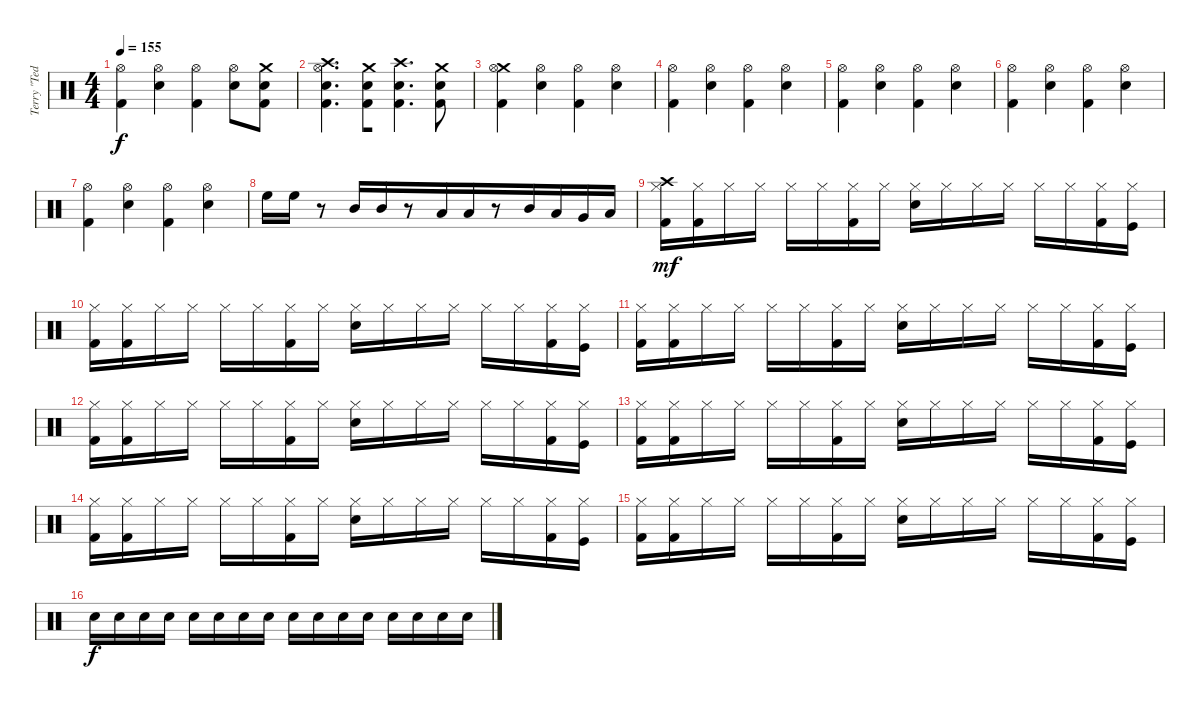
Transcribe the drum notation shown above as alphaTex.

\track ("Terry \"Ted\" Bozzio" "Terry \"Ted") {instrument percussion}
\staff {score}
\articulation defaults
\ts (4 4)
\tempo 155
\clef neutral
\ks c
("Hi-Hat (open)" "Kick (hit) 2").4{dy f} ("Hi-Hat (open)" "Electric Snare (hit)").4 ("Hi-Hat (open)" "Kick (hit) 2").4 ("Hi-Hat (open)" "Electric Snare (hit)").8 ("Crash medium (hit)" "Electric Snare (hit)" "Kick (hit) 2").8 |
("Crash high (hit)" "Hi-Hat (open)" "Electric Snare (hit)" "Kick (hit) 2").4{d} ("Crash medium (hit)" "Electric Snare (hit)" "Kick (hit) 2").8{beam merge} ("Crash high (hit)" "Electric Snare (hit)" "Kick (hit) 2").4{d} ("Crash medium (hit)" "Electric Snare (hit)" "Kick (hit) 2").8 |
("Crash medium (hit)" "Hi-Hat (open)" "Kick (hit) 2").4 ("Hi-Hat (open)" "Electric Snare (hit)").4 ("Hi-Hat (open)" "Kick (hit) 2").4 ("Hi-Hat (open)" "Electric Snare (hit)").4 |
("Hi-Hat (open)" "Kick (hit) 2").4 ("Hi-Hat (open)" "Electric Snare (hit)").4 ("Hi-Hat (open)" "Kick (hit) 2").4 ("Hi-Hat (open)" "Electric Snare (hit)").4 |
("Hi-Hat (open)" "Kick (hit) 2").4 ("Hi-Hat (open)" "Electric Snare (hit)").4 ("Hi-Hat (open)" "Kick (hit) 2").4 ("Hi-Hat (open)" "Electric Snare (hit)").4 |
("Hi-Hat (open)" "Kick (hit) 2").4 ("Hi-Hat (open)" "Electric Snare (hit)").4 ("Hi-Hat (open)" "Kick (hit) 2").4 ("Hi-Hat (open)" "Electric Snare (hit)").4 |
("Hi-Hat (open)" "Kick (hit) 2").4 ("Hi-Hat (open)" "Electric Snare (hit)").4 ("Hi-Hat (open)" "Kick (hit) 2").4 ("Hi-Hat (open)" "Electric Snare (hit)").4 |
"High Floor Tom (hit)".16 "High Floor Tom (hit)".16 r.8 "Mid Tom (hit)".16{beam merge} "Mid Tom (hit)".16{beam merge} r.8 "Low Tom (hit)".16{beam merge} "Low Tom (hit)".16{beam merge} r.8 "Mid Tom (hit)".16{beam merge} "Low Tom (hit)".16{beam merge} "Very Low Tom (hit)".16{beam merge} "Low Floor Tom (hit)".16 |
("Crash high (hit)" "Hi-Hat (closed)" "Kick (hit) 2").16{dy mf beam merge} ("Hi-Hat (closed)" "Kick (hit) 2").16{beam merge} "Hi-Hat (closed)".16 "Hi-Hat (closed)".16 "Hi-Hat (closed)".16{beam merge} "Hi-Hat (closed)".16 ("Hi-Hat (closed)" "Kick (hit) 2").16 "Hi-Hat (closed)".16 ("Hi-Hat (closed)" "Electric Snare (hit)").16 "Hi-Hat (closed)".16 "Hi-Hat (closed)".16 "Hi-Hat (closed)".16 "Hi-Hat (closed)".16 "Hi-Hat (closed)".16 ("Hi-Hat (closed)" "Kick (hit) 2").16{beam merge} ("Hi-Hat (closed)" "Kick (hit)").16 |
("Hi-Hat (closed)" "Kick (hit) 2").16{beam merge} ("Hi-Hat (closed)" "Kick (hit) 2").16{beam merge} "Hi-Hat (closed)".16 "Hi-Hat (closed)".16 "Hi-Hat (closed)".16{beam merge} "Hi-Hat (closed)".16 ("Hi-Hat (closed)" "Kick (hit) 2").16 "Hi-Hat (closed)".16 ("Hi-Hat (closed)" "Electric Snare (hit)").16 "Hi-Hat (closed)".16 "Hi-Hat (closed)".16 "Hi-Hat (closed)".16 "Hi-Hat (closed)".16 "Hi-Hat (closed)".16 ("Hi-Hat (closed)" "Kick (hit) 2").16{beam merge} ("Hi-Hat (closed)" "Kick (hit)").16 |
("Hi-Hat (closed)" "Kick (hit) 2").16{beam merge} ("Hi-Hat (closed)" "Kick (hit) 2").16{beam merge} "Hi-Hat (closed)".16 "Hi-Hat (closed)".16 "Hi-Hat (closed)".16{beam merge} "Hi-Hat (closed)".16 ("Hi-Hat (closed)" "Kick (hit) 2").16 "Hi-Hat (closed)".16 ("Hi-Hat (closed)" "Electric Snare (hit)").16 "Hi-Hat (closed)".16 "Hi-Hat (closed)".16 "Hi-Hat (closed)".16 "Hi-Hat (closed)".16 "Hi-Hat (closed)".16 ("Hi-Hat (closed)" "Kick (hit) 2").16{beam merge} ("Hi-Hat (closed)" "Kick (hit)").16 |
("Hi-Hat (closed)" "Kick (hit) 2").16{beam merge} ("Hi-Hat (closed)" "Kick (hit) 2").16{beam merge} "Hi-Hat (closed)".16 "Hi-Hat (closed)".16 "Hi-Hat (closed)".16{beam merge} "Hi-Hat (closed)".16 ("Hi-Hat (closed)" "Kick (hit) 2").16 "Hi-Hat (closed)".16 ("Hi-Hat (closed)" "Electric Snare (hit)").16 "Hi-Hat (closed)".16 "Hi-Hat (closed)".16 "Hi-Hat (closed)".16 "Hi-Hat (closed)".16 "Hi-Hat (closed)".16 ("Hi-Hat (closed)" "Kick (hit) 2").16{beam merge} ("Hi-Hat (closed)" "Kick (hit)").16 |
("Hi-Hat (closed)" "Kick (hit) 2").16{beam merge} ("Hi-Hat (closed)" "Kick (hit) 2").16{beam merge} "Hi-Hat (closed)".16 "Hi-Hat (closed)".16 "Hi-Hat (closed)".16{beam merge} "Hi-Hat (closed)".16 ("Hi-Hat (closed)" "Kick (hit) 2").16 "Hi-Hat (closed)".16 ("Hi-Hat (closed)" "Electric Snare (hit)").16 "Hi-Hat (closed)".16 "Hi-Hat (closed)".16 "Hi-Hat (closed)".16 "Hi-Hat (closed)".16 "Hi-Hat (closed)".16 ("Hi-Hat (closed)" "Kick (hit) 2").16{beam merge} ("Hi-Hat (closed)" "Kick (hit)").16 |
("Hi-Hat (closed)" "Kick (hit) 2").16{beam merge} ("Hi-Hat (closed)" "Kick (hit) 2").16{beam merge} "Hi-Hat (closed)".16 "Hi-Hat (closed)".16 "Hi-Hat (closed)".16{beam merge} "Hi-Hat (closed)".16 ("Hi-Hat (closed)" "Kick (hit) 2").16 "Hi-Hat (closed)".16 ("Hi-Hat (closed)" "Electric Snare (hit)").16 "Hi-Hat (closed)".16 "Hi-Hat (closed)".16 "Hi-Hat (closed)".16 "Hi-Hat (closed)".16 "Hi-Hat (closed)".16 ("Hi-Hat (closed)" "Kick (hit) 2").16{beam merge} ("Hi-Hat (closed)" "Kick (hit)").16 |
("Hi-Hat (closed)" "Kick (hit) 2").16{beam merge} ("Hi-Hat (closed)" "Kick (hit) 2").16{beam merge} "Hi-Hat (closed)".16 "Hi-Hat (closed)".16 "Hi-Hat (closed)".16{beam merge} "Hi-Hat (closed)".16 ("Hi-Hat (closed)" "Kick (hit) 2").16 "Hi-Hat (closed)".16 ("Hi-Hat (closed)" "Electric Snare (hit)").16 "Hi-Hat (closed)".16 "Hi-Hat (closed)".16 "Hi-Hat (closed)".16 "Hi-Hat (closed)".16 "Hi-Hat (closed)".16 ("Hi-Hat (closed)" "Kick (hit) 2").16{beam merge} ("Hi-Hat (closed)" "Kick (hit)").16 |
"Electric Snare (hit)".16{dy f} "Electric Snare (hit)".16{beam merge} "Electric Snare (hit)".16 "Electric Snare (hit)".16 "Electric Snare (hit)".16 "Electric Snare (hit)".16 "Electric Snare (hit)".16{beam merge} "Electric Snare (hit)".16 "Electric Snare (hit)".16 "Electric Snare (hit)".16 "Electric Snare (hit)".16{beam merge} "Electric Snare (hit)".16 "Electric Snare (hit)".16 "Electric Snare (hit)".16 "Electric Snare (hit)".16 "Electric Snare (hit)".16
